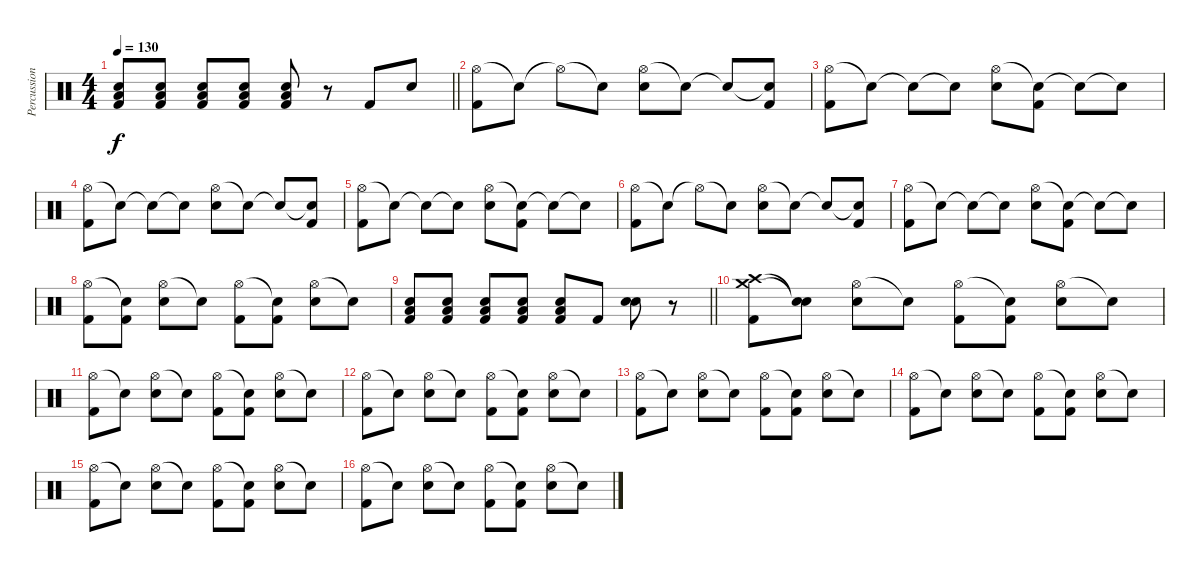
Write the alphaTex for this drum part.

\track ("Percussion" "Percussion") {instrument percussion}
\staff {score}
\articulation defaults
\ts (4 4)
\tempo 130
\clef neutral
\barLineRight lightlight
\ks c
("Low Floor Tom (hit)" "Electric Snare (hit)" "Kick (hit) 2").8{dy f volume 14} ("Low Floor Tom (hit)" "Electric Snare (hit)" "Kick (hit) 2").8 ("Low Floor Tom (hit)" "Electric Snare (hit)" "Kick (hit) 2").8 ("Low Floor Tom (hit)" "Electric Snare (hit)" "Kick (hit) 2").8 ("Low Floor Tom (hit)" "Electric Snare (hit)" "Kick (hit) 2").8 r.8 "Kick (hit) 2".8 "Electric Snare (hit)".8 |
("Hi-Hat (open)" "Kick (hit) 2").8 "Snare (hit)"{t}.8 "Hi-Hat (open)"{t}.8 "Snare (hit)"{t}.8 ("Hi-Hat (open)" "Electric Snare (hit)").8 "Snare (hit)"{t}.8 "Snare (hit)"{t}.8 ("Snare (hit)"{t} "Kick (hit) 2").8 |
("Hi-Hat (open)" "Kick (hit) 2").8 "Snare (hit)"{t}.8 "Snare (hit)"{t}.8 "Snare (hit)"{t}.8 ("Hi-Hat (open)" "Electric Snare (hit)").8 ("Snare (hit)"{t} "Kick (hit) 2").8 "Snare (hit)"{t}.8 "Snare (hit)"{t}.8 |
("Hi-Hat (open)" "Kick (hit) 2").8 "Snare (hit)"{t}.8 "Snare (hit)"{t}.8 "Snare (hit)"{t}.8 ("Hi-Hat (open)" "Electric Snare (hit)").8 "Snare (hit)"{t}.8 "Snare (hit)"{t}.8 ("Snare (hit)"{t} "Kick (hit) 2").8 |
("Hi-Hat (open)" "Kick (hit) 2").8 "Snare (hit)"{t}.8 "Snare (hit)"{t}.8 "Snare (hit)"{t}.8 ("Hi-Hat (open)" "Electric Snare (hit)").8 ("Snare (hit)"{t} "Kick (hit) 2").8 "Snare (hit)"{t}.8 "Snare (hit)"{t}.8 |
("Hi-Hat (open)" "Kick (hit) 2").8 "Snare (hit)"{t}.8 "Hi-Hat (open)"{t}.8 "Snare (hit)"{t}.8 ("Hi-Hat (open)" "Electric Snare (hit)").8 "Snare (hit)"{t}.8 "Snare (hit)"{t}.8 ("Snare (hit)"{t} "Kick (hit) 2").8 |
("Hi-Hat (open)" "Kick (hit) 2").8 "Snare (hit)"{t}.8 "Snare (hit)"{t}.8 "Snare (hit)"{t}.8 ("Hi-Hat (open)" "Electric Snare (hit)").8 ("Snare (hit)"{t} "Kick (hit) 2").8 "Snare (hit)"{t}.8 "Snare (hit)"{t}.8 |
("Hi-Hat (open)" "Kick (hit) 2").8 ("Snare (hit)"{t} "Kick (hit) 2").8 ("Hi-Hat (open)" "Electric Snare (hit)").8 "Snare (hit)"{t}.8 ("Hi-Hat (open)" "Kick (hit) 2").8 ("Snare (hit)"{t} "Kick (hit) 2").8 ("Hi-Hat (open)" "Electric Snare (hit)").8 "Snare (hit)"{t}.8 |
\barLineRight lightlight
("Low Floor Tom (hit)" "Electric Snare (hit)" "Kick (hit) 2").8 ("Low Floor Tom (hit)" "Electric Snare (hit)" "Kick (hit) 2").8 ("Low Floor Tom (hit)" "Electric Snare (hit)" "Kick (hit) 2").8 ("Low Floor Tom (hit)" "Electric Snare (hit)" "Kick (hit) 2").8 ("Low Floor Tom (hit)" "Electric Snare (hit)" "Kick (hit) 2").8 "Kick (hit) 2".8 ("Electric Snare (hit)" "Electric Snare (hit)").8 r.8 |
("Crash medium (hit)" "Crash high (hit)" "Kick (hit) 2").8 ("Snare (hit)"{t} "Snare (hit)"{t}).8 ("Hi-Hat (open)" "Electric Snare (hit)").8 "Snare (hit)"{t}.8 ("Hi-Hat (open)" "Kick (hit) 2").8 ("Snare (hit)"{t} "Kick (hit) 2").8 ("Hi-Hat (open)" "Electric Snare (hit)").8 "Snare (hit)"{t}.8 |
("Hi-Hat (open)" "Kick (hit) 2").8 "Snare (hit)"{t}.8 ("Hi-Hat (open)" "Electric Snare (hit)").8 "Snare (hit)"{t}.8 ("Hi-Hat (open)" "Kick (hit) 2").8 ("Snare (hit)"{t} "Kick (hit) 2").8 ("Hi-Hat (open)" "Electric Snare (hit)").8 "Snare (hit)"{t}.8 |
("Hi-Hat (open)" "Kick (hit) 2").8 "Snare (hit)"{t}.8 ("Hi-Hat (open)" "Electric Snare (hit)").8 "Snare (hit)"{t}.8 ("Hi-Hat (open)" "Kick (hit) 2").8 ("Snare (hit)"{t} "Kick (hit) 2").8 ("Hi-Hat (open)" "Electric Snare (hit)").8 "Snare (hit)"{t}.8 |
("Hi-Hat (open)" "Kick (hit) 2").8 "Snare (hit)"{t}.8 ("Hi-Hat (open)" "Electric Snare (hit)").8 "Snare (hit)"{t}.8 ("Hi-Hat (open)" "Kick (hit) 2").8 ("Snare (hit)"{t} "Kick (hit) 2").8 ("Hi-Hat (open)" "Electric Snare (hit)").8 "Snare (hit)"{t}.8 |
("Hi-Hat (open)" "Kick (hit) 2").8 "Snare (hit)"{t}.8 ("Hi-Hat (open)" "Electric Snare (hit)").8 "Snare (hit)"{t}.8 ("Hi-Hat (open)" "Kick (hit) 2").8 ("Snare (hit)"{t} "Kick (hit) 2").8 ("Hi-Hat (open)" "Electric Snare (hit)").8 "Snare (hit)"{t}.8 |
("Hi-Hat (open)" "Kick (hit) 2").8 "Snare (hit)"{t}.8 ("Hi-Hat (open)" "Electric Snare (hit)").8 "Snare (hit)"{t}.8 ("Hi-Hat (open)" "Kick (hit) 2").8 ("Snare (hit)"{t} "Kick (hit) 2").8 ("Hi-Hat (open)" "Electric Snare (hit)").8 "Snare (hit)"{t}.8 |
("Hi-Hat (open)" "Kick (hit) 2").8 "Snare (hit)"{t}.8 ("Hi-Hat (open)" "Electric Snare (hit)").8 "Snare (hit)"{t}.8 ("Hi-Hat (open)" "Kick (hit) 2").8 ("Snare (hit)"{t} "Kick (hit) 2").8 ("Hi-Hat (open)" "Electric Snare (hit)").8 "Snare (hit)"{t}.8
